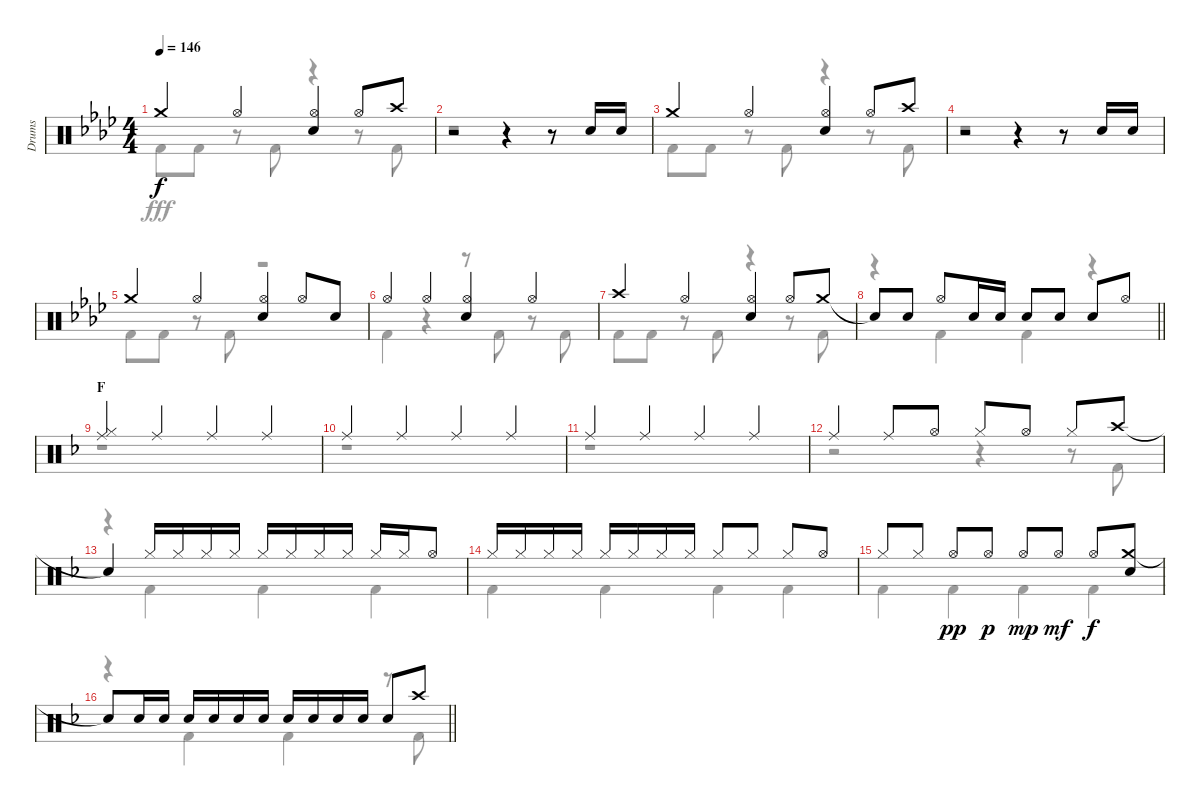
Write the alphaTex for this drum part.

\track ("Drums" "Drums") {instrument percussion}
\staff {score}
\articulation defaults
\voice
\ts (4 4)
\tempo 146
\clef neutral
\ks ab "Crash medium (hit)".4{dy f} "Hi-Hat (open)".4
("Hi-Hat (open)" "Snare (hit) 2").4 "Hi-Hat (open)".8 "Crash high (hit)".8 |
r.2 r.4 r.8 "Snare (hit) 2".16 "Snare (hit) 2".16 |
"Crash medium (hit)".4 "Hi-Hat (open)".4 ("Hi-Hat (open)" "Snare (hit) 2").4 "Hi-Hat (open)".8 "Crash high (hit)".8 |
r.2 r.4 r.8 "Snare (hit) 2".16 "Snare (hit) 2".16 |
"Crash medium (hit)".4 "Hi-Hat (open)".4 ("Hi-Hat (open)" "Snare (hit) 2").4 "Hi-Hat (open)".8 "Snare (hit) 2".8 |
"Hi-Hat (open)".4 "Hi-Hat (open)".4 ("Hi-Hat (open)" "Snare (hit) 2").4 "Hi-Hat (open)".4 |
"Crash high (hit)".4 "Hi-Hat (open)".4 ("Hi-Hat (open)" "Snare (hit) 2").4 "Hi-Hat (open)".8 "Crash medium (hit)".8 |
\barLineRight lightlight "Snare (hit)"{t}.8 "Snare (hit) 2".8 "Hi-Hat (open)".8 "Snare (hit) 2".16 "Snare (hit) 2".16 "Snare (hit) 2".8 "Snare (hit) 2".8 "Snare (hit) 2".8 "Hi-Hat (open)".8
|
\section ("" "F")
\ks f
("Hi-Hat (closed)" "Ride (middle)").4 "Ride (middle)".4 "Ride (middle)".4 "Ride (middle)".4 |
"Ride (middle)".4 "Ride (middle)".4 "Ride (middle)".4 "Ride (middle)".4 |
"Ride (middle)".4 "Ride (middle)".4 "Ride (middle)".4 "Ride (middle)".4 |
"Ride (middle)".4 "Ride (middle)".8 "Hi-Hat (open)".8 "Hi-Hat (closed)".8 "Hi-Hat (open)".8 "Hi-Hat (closed)".8 "Crash high (hit)".8 |
"Snare (hit)"{t}.4 "Hi-Hat (closed)".16 "Hi-Hat (closed)".16 "Hi-Hat (closed)".16 "Hi-Hat (closed)".16 "Hi-Hat (closed)".16 "Hi-Hat (closed)".16 "Hi-Hat (closed)".16 "Hi-Hat (closed)".16 "Hi-Hat (closed)".16 "Hi-Hat (closed)".16 "Hi-Hat (open)".8 |
"Hi-Hat (closed)".16 "Hi-Hat (closed)".16 "Hi-Hat (closed)".16 "Hi-Hat (closed)".16 "Hi-Hat (closed)".16 "Hi-Hat (closed)".16 "Hi-Hat (closed)".16 "Hi-Hat (closed)".16 "Hi-Hat (closed)".8 "Hi-Hat (closed)".8 "Hi-Hat (closed)".8 "Hi-Hat (open)".8 |
"Hi-Hat (closed)".8 "Hi-Hat (closed)".8 "Hi-Hat (open)".8{dy pp} "Hi-Hat (open)".8{dy p} "Hi-Hat (open)".8{dy mp} "Hi-Hat (open)".8{dy mf} "Hi-Hat (open)".8{dy f} ("Crash medium (hit)" "Snare (hit) 2").8 |
\barLineRight lightlight "Snare (hit)"{t}.8 "Snare (hit) 2".16 "Snare (hit) 2".16 "Snare (hit) 2".16 "Snare (hit) 2".16 "Snare (hit) 2".16 "Snare (hit) 2".16 "Snare (hit) 2".16 "Snare (hit) 2".16 "Snare (hit) 2".16 "Snare (hit) 2".16 "Snare (hit) 2".8 "Crash high (hit)".8
\voice
\clef neutral
\ottava regular
\simile none
\ks ab "Kick (hit) 2".8{dy fff} "Kick (hit) 2".8
r.8 "Kick (hit) 2".8 r.4 r.8 "Kick (hit) 2".8 |
r.1 |
"Kick (hit) 2".8 "Kick (hit) 2".8 r.8 "Kick (hit) 2".8 r.4 r.8 "Kick (hit) 2".8 |
r.1 |
"Kick (hit) 2".8 "Kick (hit) 2".8 r.8 "Kick (hit) 2".8 r.2 |
"Kick (hit) 2".4 r.4 r.8 "Kick (hit) 2".8 r.8 "Kick (hit) 2".8 |
"Kick (hit) 2".8 "Kick (hit) 2".8 r.8 "Kick (hit) 2".8 r.4 r.8 "Kick (hit) 2".8 |
\barLineRight lightlight
r.4 "Kick (hit) 2".4 "Kick (hit) 2".4 r.4 |
\ks f
r.1 |
r.1 |
r.1 |
r.2 r.4 r.8 "Kick (hit) 2".8 |
r.4 "Kick (hit) 2".4 "Kick (hit) 2".4 "Kick (hit) 2".4 |
"Kick (hit) 2".4 "Kick (hit) 2".4 "Kick (hit) 2".4 "Kick (hit) 2".4 |
"Kick (hit) 2".4 "Kick (hit) 2".4 "Kick (hit) 2".4 "Kick (hit) 2".4 |
\barLineRight lightlight
r.4 "Kick (hit) 2".4 "Kick (hit) 2".4 r.8 "Kick (hit) 2".8
